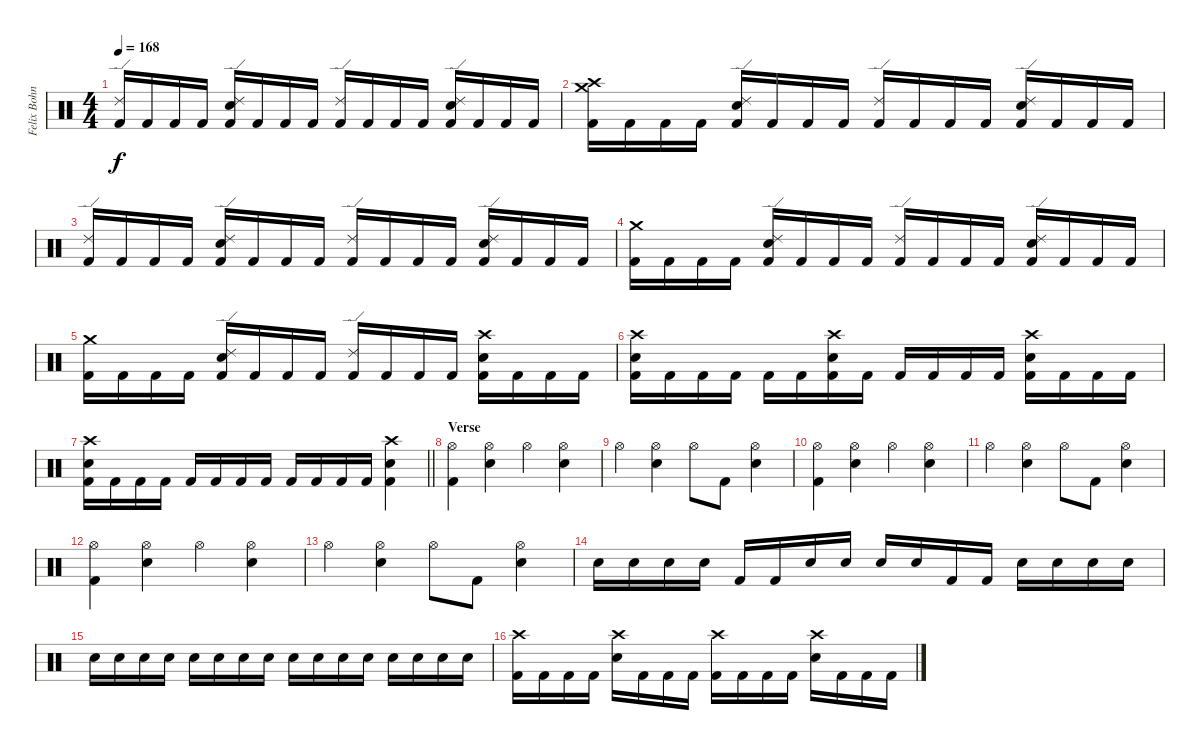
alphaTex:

\track ("Felix Bohnke" "Felix Bohn") {instrument percussion}
\staff {score}
\articulation defaults
\ts (4 4)
\tempo 168
\clef neutral
\ks c
("Ride (edge) 2" "Kick (hit) 2").16{dy f} "Kick (hit) 2".16 "Kick (hit) 2".16 "Kick (hit) 2".16 ("Ride (edge) 2" "Snare (hit) 2" "Kick (hit) 2").16 "Kick (hit) 2".16 "Kick (hit) 2".16 "Kick (hit) 2".16 ("Ride (edge) 2" "Kick (hit) 2").16 "Kick (hit) 2".16 "Kick (hit) 2".16 "Kick (hit) 2".16 ("Ride (edge) 2" "Snare (hit) 2" "Kick (hit) 2").16 "Kick (hit) 2".16 "Kick (hit) 2".16 "Kick (hit) 2".16 |
("Crash high (hit)" "Crash medium (hit)" "Kick (hit) 2").16 "Kick (hit) 2".16 "Kick (hit) 2".16 "Kick (hit) 2".16 ("Ride (edge) 2" "Snare (hit) 2" "Kick (hit) 2").16 "Kick (hit) 2".16 "Kick (hit) 2".16 "Kick (hit) 2".16 ("Ride (edge) 2" "Kick (hit) 2").16 "Kick (hit) 2".16 "Kick (hit) 2".16 "Kick (hit) 2".16 ("Ride (edge) 2" "Snare (hit) 2" "Kick (hit) 2").16 "Kick (hit) 2".16 "Kick (hit) 2".16 "Kick (hit) 2".16 |
("Ride (edge) 2" "Kick (hit) 2").16 "Kick (hit) 2".16 "Kick (hit) 2".16 "Kick (hit) 2".16 ("Ride (edge) 2" "Snare (hit) 2" "Kick (hit) 2").16 "Kick (hit) 2".16 "Kick (hit) 2".16 "Kick (hit) 2".16 ("Ride (edge) 2" "Kick (hit) 2").16 "Kick (hit) 2".16 "Kick (hit) 2".16 "Kick (hit) 2".16 ("Ride (edge) 2" "Snare (hit) 2" "Kick (hit) 2").16 "Kick (hit) 2".16 "Kick (hit) 2".16 "Kick (hit) 2".16 |
("Crash medium (hit)" "Kick (hit) 2").16 "Kick (hit) 2".16 "Kick (hit) 2".16 "Kick (hit) 2".16 ("Ride (edge) 2" "Snare (hit) 2" "Kick (hit) 2").16 "Kick (hit) 2".16 "Kick (hit) 2".16 "Kick (hit) 2".16 ("Ride (edge) 2" "Kick (hit) 2").16 "Kick (hit) 2".16 "Kick (hit) 2".16 "Kick (hit) 2".16 ("Ride (edge) 2" "Snare (hit) 2" "Kick (hit) 2").16 "Kick (hit) 2".16 "Kick (hit) 2".16 "Kick (hit) 2".16 |
("Crash medium (hit)" "Kick (hit) 2").16 "Kick (hit) 2".16 "Kick (hit) 2".16 "Kick (hit) 2".16 ("Ride (edge) 2" "Snare (hit) 2" "Kick (hit) 2").16 "Kick (hit) 2".16 "Kick (hit) 2".16 "Kick (hit) 2".16 ("Ride (edge) 2" "Kick (hit) 2").16 "Kick (hit) 2".16 "Kick (hit) 2".16 "Kick (hit) 2".16 ("Crash high (hit)" "Snare (hit) 2" "Kick (hit) 2").16 "Kick (hit) 2".16 "Kick (hit) 2".16 "Kick (hit) 2".16 |
("Crash high (hit)" "Snare (hit) 2" "Kick (hit) 2").16 "Kick (hit) 2".16 "Kick (hit) 2".16 "Kick (hit) 2".16 "Kick (hit) 2".16 "Kick (hit) 2".16 ("Crash high (hit)" "Snare (hit) 2" "Kick (hit) 2").16 "Kick (hit) 2".16 "Kick (hit) 2".16 "Kick (hit) 2".16 "Kick (hit) 2".16 "Kick (hit) 2".16 ("Crash high (hit)" "Snare (hit) 2" "Kick (hit) 2").16 "Kick (hit) 2".16 "Kick (hit) 2".16 "Kick (hit) 2".16 |
\barLineRight lightlight
("Crash high (hit)" "Snare (hit) 2" "Kick (hit) 2").16 "Kick (hit) 2".16 "Kick (hit) 2".16 "Kick (hit) 2".16 "Kick (hit) 2".16 "Kick (hit) 2".16 "Kick (hit) 2".16 "Kick (hit) 2".16 "Kick (hit) 2".16 "Kick (hit) 2".16 "Kick (hit) 2".16 "Kick (hit) 2".16 ("Crash high (hit)" "Snare (hit) 2" "Kick (hit) 2").4 |
\section ("" "Verse")
("Hi-Hat (open)" "Kick (hit) 2").4 ("Hi-Hat (open)" "Snare (hit) 2").4 "Hi-Hat (open)".4 ("Hi-Hat (open)" "Snare (hit) 2").4 |
"Hi-Hat (open)".4 ("Hi-Hat (open)" "Snare (hit) 2").4 "Hi-Hat (open)".8 "Kick (hit) 2".8 ("Hi-Hat (open)" "Snare (hit) 2").4 |
("Hi-Hat (open)" "Kick (hit) 2").4 ("Hi-Hat (open)" "Snare (hit) 2").4 "Hi-Hat (open)".4 ("Hi-Hat (open)" "Snare (hit) 2").4 |
"Hi-Hat (open)".4 ("Hi-Hat (open)" "Snare (hit) 2").4 "Hi-Hat (open)".8 "Kick (hit) 2".8 ("Hi-Hat (open)" "Snare (hit) 2").4 |
("Hi-Hat (open)" "Kick (hit) 2").4 ("Hi-Hat (open)" "Snare (hit) 2").4 "Hi-Hat (open)".4 ("Hi-Hat (open)" "Snare (hit) 2").4 |
"Hi-Hat (open)".4 ("Hi-Hat (open)" "Snare (hit) 2").4 "Hi-Hat (open)".8 "Kick (hit) 2".8 ("Hi-Hat (open)" "Snare (hit) 2").4 |
"Snare (hit) 2".16 "Snare (hit) 2".16 "Snare (hit) 2".16 "Snare (hit) 2".16 "Kick (hit) 2".16 "Kick (hit) 2".16 "Snare (hit) 2".16 "Snare (hit) 2".16 "Snare (hit) 2".16 "Snare (hit) 2".16 "Kick (hit) 2".16 "Kick (hit) 2".16 "Snare (hit) 2".16 "Snare (hit) 2".16 "Snare (hit) 2".16 "Snare (hit) 2".16 |
"Snare (hit) 2".16{volume 1} "Snare (hit) 2".16{volume 3} "Snare (hit) 2".16{volume 5} "Snare (hit) 2".16{volume 7} "Snare (hit) 2".16{volume 9} "Snare (hit) 2".16{volume 11} "Snare (hit) 2".16{volume 13} "Snare (hit) 2".16{volume 14} "Snare (hit) 2".16 "Snare (hit) 2".16 "Snare (hit) 2".16 "Snare (hit) 2".16 "Snare (hit) 2".16 "Snare (hit) 2".16 "Snare (hit) 2".16 "Snare (hit) 2".16 |
("Crash high (hit)" "Kick (hit) 2").16 "Kick (hit) 2".16 "Kick (hit) 2".16 "Kick (hit) 2".16 ("Crash high (hit)" "Electric Snare (hit)").16 "Kick (hit) 2".16 "Kick (hit) 2".16 "Kick (hit) 2".16 ("Crash high (hit)" "Kick (hit) 2").16 "Kick (hit) 2".16 "Kick (hit) 2".16 "Kick (hit) 2".16 ("Crash high (hit)" "Electric Snare (hit)").16 "Kick (hit) 2".16 "Kick (hit) 2".16 "Kick (hit) 2".16
